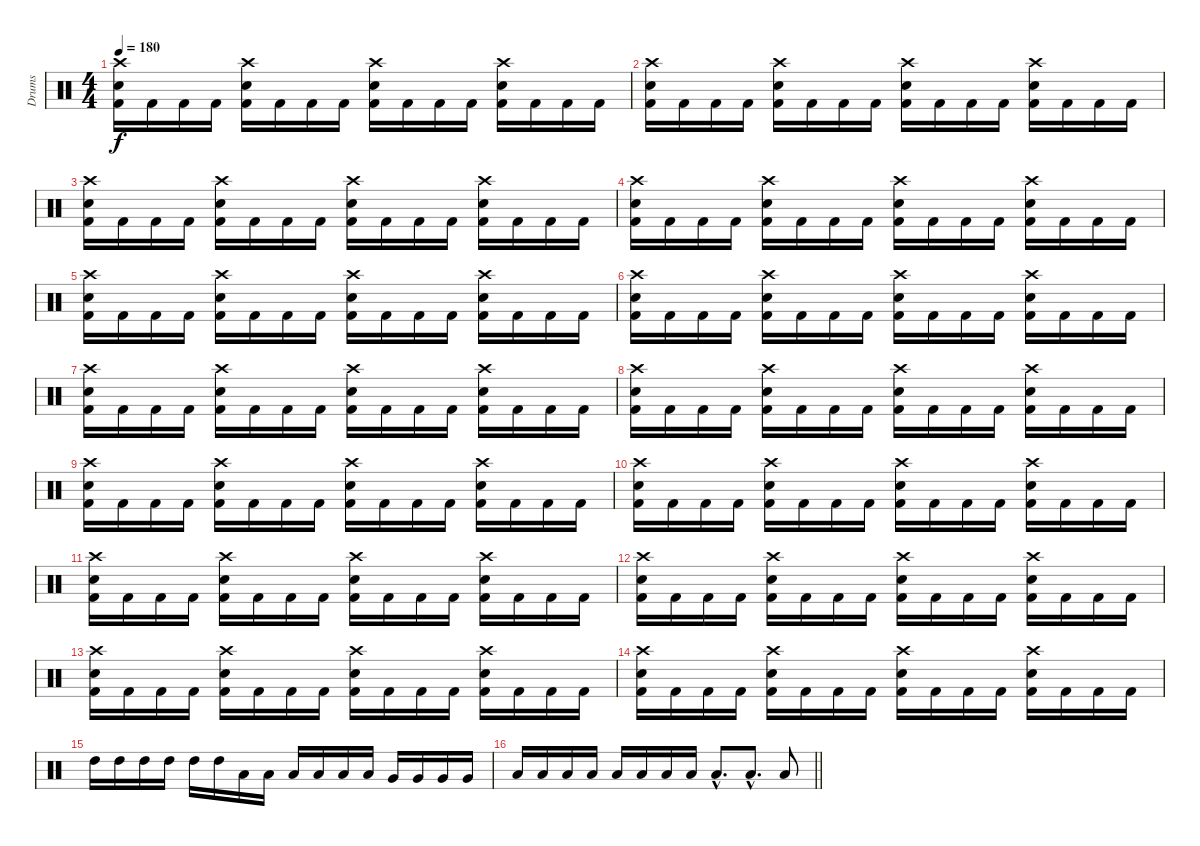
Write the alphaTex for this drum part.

\track ("Drums" "Drums") {instrument percussion}
\staff {score}
\articulation defaults
\ts (4 4)
\tempo 180
\clef neutral
\ks c
("Crash high (hit)" "Electric Snare (hit)" "Kick (hit) 2").16{dy f} "Kick (hit) 2".16 "Kick (hit) 2".16 "Kick (hit) 2".16 ("Crash high (hit)" "Electric Snare (hit)" "Kick (hit) 2").16 "Kick (hit) 2".16 "Kick (hit) 2".16 "Kick (hit) 2".16 ("Crash high (hit)" "Electric Snare (hit)" "Kick (hit) 2").16 "Kick (hit) 2".16 "Kick (hit) 2".16 "Kick (hit) 2".16 ("Crash high (hit)" "Electric Snare (hit)" "Kick (hit) 2").16 "Kick (hit) 2".16 "Kick (hit) 2".16 "Kick (hit) 2".16 |
("Crash high (hit)" "Electric Snare (hit)" "Kick (hit) 2").16 "Kick (hit) 2".16 "Kick (hit) 2".16 "Kick (hit) 2".16 ("Crash high (hit)" "Electric Snare (hit)" "Kick (hit) 2").16 "Kick (hit) 2".16 "Kick (hit) 2".16 "Kick (hit) 2".16 ("Crash high (hit)" "Electric Snare (hit)" "Kick (hit) 2").16 "Kick (hit) 2".16 "Kick (hit) 2".16 "Kick (hit) 2".16 ("Crash high (hit)" "Electric Snare (hit)" "Kick (hit) 2").16 "Kick (hit) 2".16 "Kick (hit) 2".16 "Kick (hit) 2".16 |
("Crash high (hit)" "Electric Snare (hit)" "Kick (hit) 2").16 "Kick (hit) 2".16 "Kick (hit) 2".16 "Kick (hit) 2".16 ("Crash high (hit)" "Electric Snare (hit)" "Kick (hit) 2").16 "Kick (hit) 2".16 "Kick (hit) 2".16 "Kick (hit) 2".16 ("Crash high (hit)" "Electric Snare (hit)" "Kick (hit) 2").16 "Kick (hit) 2".16 "Kick (hit) 2".16 "Kick (hit) 2".16 ("Crash high (hit)" "Electric Snare (hit)" "Kick (hit) 2").16 "Kick (hit) 2".16 "Kick (hit) 2".16 "Kick (hit) 2".16 |
("Crash high (hit)" "Electric Snare (hit)" "Kick (hit) 2").16 "Kick (hit) 2".16 "Kick (hit) 2".16 "Kick (hit) 2".16 ("Crash high (hit)" "Electric Snare (hit)" "Kick (hit) 2").16 "Kick (hit) 2".16 "Kick (hit) 2".16 "Kick (hit) 2".16 ("Crash high (hit)" "Electric Snare (hit)" "Kick (hit) 2").16 "Kick (hit) 2".16 "Kick (hit) 2".16 "Kick (hit) 2".16 ("Crash high (hit)" "Electric Snare (hit)" "Kick (hit) 2").16 "Kick (hit) 2".16 "Kick (hit) 2".16 "Kick (hit) 2".16 |
("Crash high (hit)" "Electric Snare (hit)" "Kick (hit) 2").16 "Kick (hit) 2".16 "Kick (hit) 2".16 "Kick (hit) 2".16 ("Crash high (hit)" "Electric Snare (hit)" "Kick (hit) 2").16 "Kick (hit) 2".16 "Kick (hit) 2".16 "Kick (hit) 2".16 ("Crash high (hit)" "Electric Snare (hit)" "Kick (hit) 2").16 "Kick (hit) 2".16 "Kick (hit) 2".16 "Kick (hit) 2".16 ("Crash high (hit)" "Electric Snare (hit)" "Kick (hit) 2").16 "Kick (hit) 2".16 "Kick (hit) 2".16 "Kick (hit) 2".16 |
("Crash high (hit)" "Electric Snare (hit)" "Kick (hit) 2").16 "Kick (hit) 2".16 "Kick (hit) 2".16 "Kick (hit) 2".16 ("Crash high (hit)" "Electric Snare (hit)" "Kick (hit) 2").16 "Kick (hit) 2".16 "Kick (hit) 2".16 "Kick (hit) 2".16 ("Crash high (hit)" "Electric Snare (hit)" "Kick (hit) 2").16 "Kick (hit) 2".16 "Kick (hit) 2".16 "Kick (hit) 2".16 ("Crash high (hit)" "Electric Snare (hit)" "Kick (hit) 2").16 "Kick (hit) 2".16 "Kick (hit) 2".16 "Kick (hit) 2".16 |
("Crash high (hit)" "Electric Snare (hit)" "Kick (hit) 2").16 "Kick (hit) 2".16 "Kick (hit) 2".16 "Kick (hit) 2".16 ("Crash high (hit)" "Electric Snare (hit)" "Kick (hit) 2").16 "Kick (hit) 2".16 "Kick (hit) 2".16 "Kick (hit) 2".16 ("Crash high (hit)" "Electric Snare (hit)" "Kick (hit) 2").16 "Kick (hit) 2".16 "Kick (hit) 2".16 "Kick (hit) 2".16 ("Crash high (hit)" "Electric Snare (hit)" "Kick (hit) 2").16 "Kick (hit) 2".16 "Kick (hit) 2".16 "Kick (hit) 2".16 |
("Crash high (hit)" "Electric Snare (hit)" "Kick (hit) 2").16 "Kick (hit) 2".16 "Kick (hit) 2".16 "Kick (hit) 2".16 ("Crash high (hit)" "Electric Snare (hit)" "Kick (hit) 2").16 "Kick (hit) 2".16 "Kick (hit) 2".16 "Kick (hit) 2".16 ("Crash high (hit)" "Electric Snare (hit)" "Kick (hit) 2").16 "Kick (hit) 2".16 "Kick (hit) 2".16 "Kick (hit) 2".16 ("Crash high (hit)" "Electric Snare (hit)" "Kick (hit) 2").16 "Kick (hit) 2".16 "Kick (hit) 2".16 "Kick (hit) 2".16 |
("Crash high (hit)" "Electric Snare (hit)" "Kick (hit) 2").16 "Kick (hit) 2".16 "Kick (hit) 2".16 "Kick (hit) 2".16 ("Crash high (hit)" "Electric Snare (hit)" "Kick (hit) 2").16 "Kick (hit) 2".16 "Kick (hit) 2".16 "Kick (hit) 2".16 ("Crash high (hit)" "Electric Snare (hit)" "Kick (hit) 2").16 "Kick (hit) 2".16 "Kick (hit) 2".16 "Kick (hit) 2".16 ("Crash high (hit)" "Electric Snare (hit)" "Kick (hit) 2").16 "Kick (hit) 2".16 "Kick (hit) 2".16 "Kick (hit) 2".16 |
("Crash high (hit)" "Electric Snare (hit)" "Kick (hit) 2").16 "Kick (hit) 2".16 "Kick (hit) 2".16 "Kick (hit) 2".16 ("Crash high (hit)" "Electric Snare (hit)" "Kick (hit) 2").16 "Kick (hit) 2".16 "Kick (hit) 2".16 "Kick (hit) 2".16 ("Crash high (hit)" "Electric Snare (hit)" "Kick (hit) 2").16 "Kick (hit) 2".16 "Kick (hit) 2".16 "Kick (hit) 2".16 ("Crash high (hit)" "Electric Snare (hit)" "Kick (hit) 2").16 "Kick (hit) 2".16 "Kick (hit) 2".16 "Kick (hit) 2".16 |
("Crash high (hit)" "Electric Snare (hit)" "Kick (hit) 2").16 "Kick (hit) 2".16 "Kick (hit) 2".16 "Kick (hit) 2".16 ("Crash high (hit)" "Electric Snare (hit)" "Kick (hit) 2").16 "Kick (hit) 2".16 "Kick (hit) 2".16 "Kick (hit) 2".16 ("Crash high (hit)" "Electric Snare (hit)" "Kick (hit) 2").16 "Kick (hit) 2".16 "Kick (hit) 2".16 "Kick (hit) 2".16 ("Crash high (hit)" "Electric Snare (hit)" "Kick (hit) 2").16 "Kick (hit) 2".16 "Kick (hit) 2".16 "Kick (hit) 2".16 |
("Crash high (hit)" "Electric Snare (hit)" "Kick (hit) 2").16 "Kick (hit) 2".16 "Kick (hit) 2".16 "Kick (hit) 2".16 ("Crash high (hit)" "Electric Snare (hit)" "Kick (hit) 2").16 "Kick (hit) 2".16 "Kick (hit) 2".16 "Kick (hit) 2".16 ("Crash high (hit)" "Electric Snare (hit)" "Kick (hit) 2").16 "Kick (hit) 2".16 "Kick (hit) 2".16 "Kick (hit) 2".16 ("Crash high (hit)" "Electric Snare (hit)" "Kick (hit) 2").16 "Kick (hit) 2".16 "Kick (hit) 2".16 "Kick (hit) 2".16 |
("Crash high (hit)" "Electric Snare (hit)" "Kick (hit) 2").16 "Kick (hit) 2".16 "Kick (hit) 2".16 "Kick (hit) 2".16 ("Crash high (hit)" "Electric Snare (hit)" "Kick (hit) 2").16 "Kick (hit) 2".16 "Kick (hit) 2".16 "Kick (hit) 2".16 ("Crash high (hit)" "Electric Snare (hit)" "Kick (hit) 2").16 "Kick (hit) 2".16 "Kick (hit) 2".16 "Kick (hit) 2".16 ("Crash high (hit)" "Electric Snare (hit)" "Kick (hit) 2").16 "Kick (hit) 2".16 "Kick (hit) 2".16 "Kick (hit) 2".16 |
("Crash high (hit)" "Electric Snare (hit)" "Kick (hit) 2").16 "Kick (hit) 2".16 "Kick (hit) 2".16 "Kick (hit) 2".16 ("Crash high (hit)" "Electric Snare (hit)" "Kick (hit) 2").16 "Kick (hit) 2".16 "Kick (hit) 2".16 "Kick (hit) 2".16 ("Crash high (hit)" "Electric Snare (hit)" "Kick (hit) 2").16 "Kick (hit) 2".16 "Kick (hit) 2".16 "Kick (hit) 2".16 ("Crash high (hit)" "Electric Snare (hit)" "Kick (hit) 2").16 "Kick (hit) 2".16 "Kick (hit) 2".16 "Kick (hit) 2".16 |
"High Tom (hit)".16 "High Tom (hit)".16 "High Tom (hit)".16 "High Tom (hit)".16 "High Tom (hit)".16 "High Tom (hit)".16 "Low Tom (hit)".16 "Low Tom (hit)".16 "Low Tom (hit)".16 "Low Tom (hit)".16 "Low Tom (hit)".16 "Low Tom (hit)".16 "Very Low Tom (hit)".16 "Very Low Tom (hit)".16 "Very Low Tom (hit)".16 "Very Low Tom (hit)".16 |
\barLineRight lightlight "Low Floor Tom (hit)".16 "Low Floor Tom (hit)".16 "Low Floor Tom (hit)".16 "Low Floor Tom (hit)".16 "Low Floor Tom (hit)".16 "Low Floor Tom (hit)".16 "Low Floor Tom (hit)".16 "Low Floor Tom (hit)".16 "Low Floor Tom (hit)"{hac}.8{d} "Low Floor Tom (hit)"{hac}.8{d} "Low Floor Tom (hit)".8
